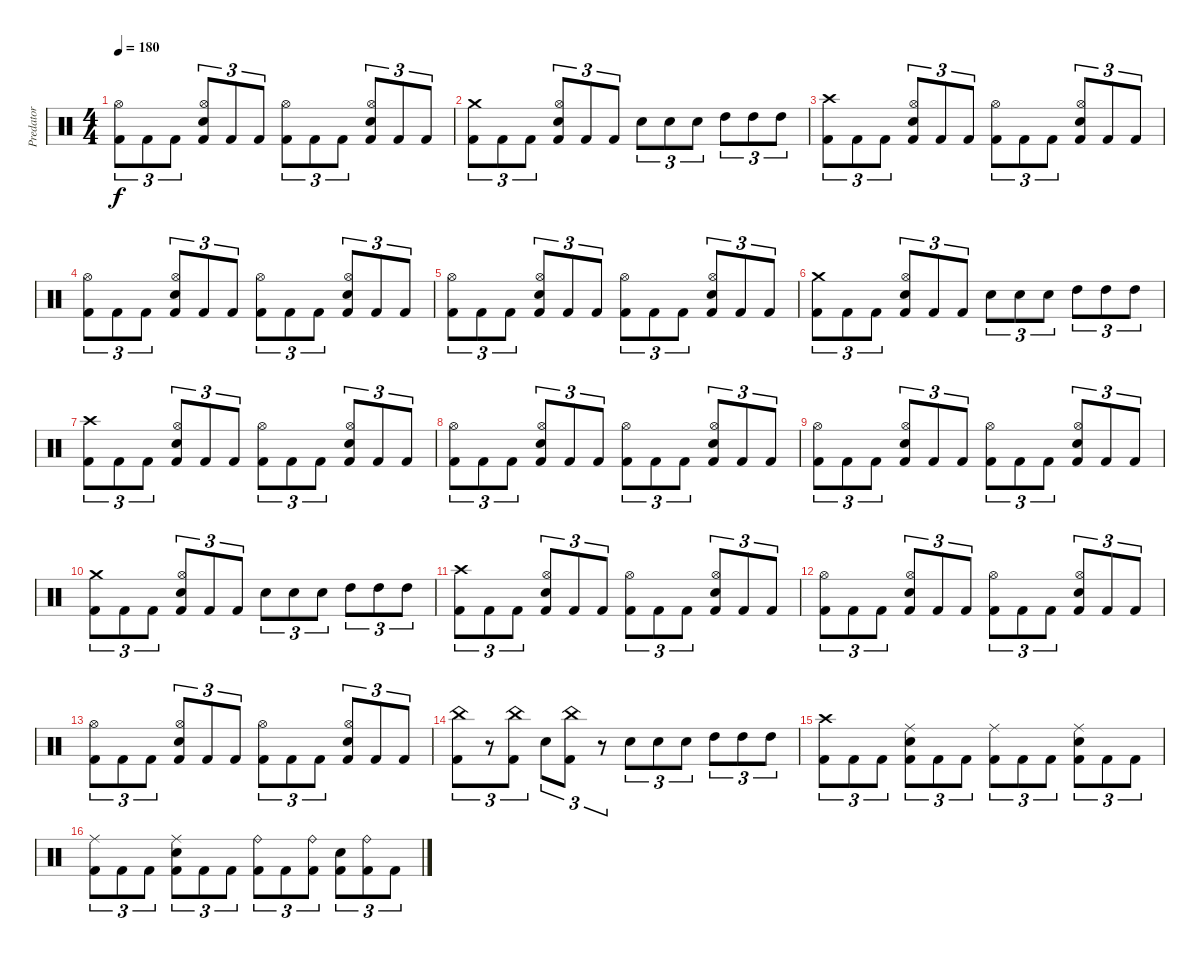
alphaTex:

\track ("Predator" "Predator") {instrument percussion}
\staff {score}
\articulation defaults
\ts (4 4)
\tempo 180
\clef neutral
\ks c
("Kick (hit) 2" "Hi-Hat (open)").8{tu (3 2) dy f} "Kick (hit) 2".8{tu (3 2)} "Kick (hit) 2".8{tu (3 2)} ("Kick (hit) 2" "Electric Snare (hit)" "Hi-Hat (open)").8{tu (3 2)} "Kick (hit) 2".8{tu (3 2)} "Kick (hit) 2".8{tu (3 2)} ("Kick (hit) 2" "Hi-Hat (open)").8{tu (3 2)} "Kick (hit) 2".8{tu (3 2)} "Kick (hit) 2".8{tu (3 2)} ("Kick (hit) 2" "Electric Snare (hit)" "Hi-Hat (open)").8{tu (3 2)} "Kick (hit) 2".8{tu (3 2)} "Kick (hit) 2".8{tu (3 2)} |
("Kick (hit) 2" "Crash medium (hit)").8{tu (3 2)} "Kick (hit) 2".8{tu (3 2)} "Kick (hit) 2".8{tu (3 2)} ("Kick (hit) 2" "Electric Snare (hit)" "Hi-Hat (open)").8{tu (3 2)} "Kick (hit) 2".8{tu (3 2)} "Kick (hit) 2".8{tu (3 2)} "Electric Snare (hit)".8{tu (3 2)} "Electric Snare (hit)".8{tu (3 2)} "Electric Snare (hit)".8{tu (3 2)} "High Tom (hit)".8{tu (3 2)} "High Tom (hit)".8{tu (3 2)} "High Tom (hit)".8{tu (3 2)} |
("Kick (hit) 2" "Crash high (hit)").8{tu (3 2)} "Kick (hit) 2".8{tu (3 2)} "Kick (hit) 2".8{tu (3 2)} ("Kick (hit) 2" "Electric Snare (hit)" "Hi-Hat (open)").8{tu (3 2)} "Kick (hit) 2".8{tu (3 2)} "Kick (hit) 2".8{tu (3 2)} ("Kick (hit) 2" "Hi-Hat (open)").8{tu (3 2)} "Kick (hit) 2".8{tu (3 2)} "Kick (hit) 2".8{tu (3 2)} ("Kick (hit) 2" "Electric Snare (hit)" "Hi-Hat (open)").8{tu (3 2)} "Kick (hit) 2".8{tu (3 2)} "Kick (hit) 2".8{tu (3 2)} |
("Kick (hit) 2" "Hi-Hat (open)").8{tu (3 2)} "Kick (hit) 2".8{tu (3 2)} "Kick (hit) 2".8{tu (3 2)} ("Kick (hit) 2" "Electric Snare (hit)" "Hi-Hat (open)").8{tu (3 2)} "Kick (hit) 2".8{tu (3 2)} "Kick (hit) 2".8{tu (3 2)} ("Kick (hit) 2" "Hi-Hat (open)").8{tu (3 2)} "Kick (hit) 2".8{tu (3 2)} "Kick (hit) 2".8{tu (3 2)} ("Kick (hit) 2" "Electric Snare (hit)" "Hi-Hat (open)").8{tu (3 2)} "Kick (hit) 2".8{tu (3 2)} "Kick (hit) 2".8{tu (3 2)} |
("Kick (hit) 2" "Hi-Hat (open)").8{tu (3 2)} "Kick (hit) 2".8{tu (3 2)} "Kick (hit) 2".8{tu (3 2)} ("Kick (hit) 2" "Electric Snare (hit)" "Hi-Hat (open)").8{tu (3 2)} "Kick (hit) 2".8{tu (3 2)} "Kick (hit) 2".8{tu (3 2)} ("Kick (hit) 2" "Hi-Hat (open)").8{tu (3 2)} "Kick (hit) 2".8{tu (3 2)} "Kick (hit) 2".8{tu (3 2)} ("Kick (hit) 2" "Electric Snare (hit)" "Hi-Hat (open)").8{tu (3 2)} "Kick (hit) 2".8{tu (3 2)} "Kick (hit) 2".8{tu (3 2)} |
("Kick (hit) 2" "Crash medium (hit)").8{tu (3 2)} "Kick (hit) 2".8{tu (3 2)} "Kick (hit) 2".8{tu (3 2)} ("Kick (hit) 2" "Electric Snare (hit)" "Hi-Hat (open)").8{tu (3 2)} "Kick (hit) 2".8{tu (3 2)} "Kick (hit) 2".8{tu (3 2)} "Electric Snare (hit)".8{tu (3 2)} "Electric Snare (hit)".8{tu (3 2)} "Electric Snare (hit)".8{tu (3 2)} "High Tom (hit)".8{tu (3 2)} "High Tom (hit)".8{tu (3 2)} "High Tom (hit)".8{tu (3 2)} |
("Kick (hit) 2" "Crash high (hit)").8{tu (3 2)} "Kick (hit) 2".8{tu (3 2)} "Kick (hit) 2".8{tu (3 2)} ("Kick (hit) 2" "Electric Snare (hit)" "Hi-Hat (open)").8{tu (3 2)} "Kick (hit) 2".8{tu (3 2)} "Kick (hit) 2".8{tu (3 2)} ("Kick (hit) 2" "Hi-Hat (open)").8{tu (3 2)} "Kick (hit) 2".8{tu (3 2)} "Kick (hit) 2".8{tu (3 2)} ("Kick (hit) 2" "Electric Snare (hit)" "Hi-Hat (open)").8{tu (3 2)} "Kick (hit) 2".8{tu (3 2)} "Kick (hit) 2".8{tu (3 2)} |
("Kick (hit) 2" "Hi-Hat (open)").8{tu (3 2)} "Kick (hit) 2".8{tu (3 2)} "Kick (hit) 2".8{tu (3 2)} ("Kick (hit) 2" "Electric Snare (hit)" "Hi-Hat (open)").8{tu (3 2)} "Kick (hit) 2".8{tu (3 2)} "Kick (hit) 2".8{tu (3 2)} ("Kick (hit) 2" "Hi-Hat (open)").8{tu (3 2)} "Kick (hit) 2".8{tu (3 2)} "Kick (hit) 2".8{tu (3 2)} ("Kick (hit) 2" "Electric Snare (hit)" "Hi-Hat (open)").8{tu (3 2)} "Kick (hit) 2".8{tu (3 2)} "Kick (hit) 2".8{tu (3 2)} |
("Kick (hit) 2" "Hi-Hat (open)").8{tu (3 2)} "Kick (hit) 2".8{tu (3 2)} "Kick (hit) 2".8{tu (3 2)} ("Kick (hit) 2" "Electric Snare (hit)" "Hi-Hat (open)").8{tu (3 2)} "Kick (hit) 2".8{tu (3 2)} "Kick (hit) 2".8{tu (3 2)} ("Kick (hit) 2" "Hi-Hat (open)").8{tu (3 2)} "Kick (hit) 2".8{tu (3 2)} "Kick (hit) 2".8{tu (3 2)} ("Kick (hit) 2" "Electric Snare (hit)" "Hi-Hat (open)").8{tu (3 2)} "Kick (hit) 2".8{tu (3 2)} "Kick (hit) 2".8{tu (3 2)} |
("Kick (hit) 2" "Crash medium (hit)").8{tu (3 2)} "Kick (hit) 2".8{tu (3 2)} "Kick (hit) 2".8{tu (3 2)} ("Kick (hit) 2" "Electric Snare (hit)" "Hi-Hat (open)").8{tu (3 2)} "Kick (hit) 2".8{tu (3 2)} "Kick (hit) 2".8{tu (3 2)} "Electric Snare (hit)".8{tu (3 2)} "Electric Snare (hit)".8{tu (3 2)} "Electric Snare (hit)".8{tu (3 2)} "High Tom (hit)".8{tu (3 2)} "High Tom (hit)".8{tu (3 2)} "High Tom (hit)".8{tu (3 2)} |
("Kick (hit) 2" "Crash high (hit)").8{tu (3 2)} "Kick (hit) 2".8{tu (3 2)} "Kick (hit) 2".8{tu (3 2)} ("Kick (hit) 2" "Electric Snare (hit)" "Hi-Hat (open)").8{tu (3 2)} "Kick (hit) 2".8{tu (3 2)} "Kick (hit) 2".8{tu (3 2)} ("Kick (hit) 2" "Hi-Hat (open)").8{tu (3 2)} "Kick (hit) 2".8{tu (3 2)} "Kick (hit) 2".8{tu (3 2)} ("Kick (hit) 2" "Electric Snare (hit)" "Hi-Hat (open)").8{tu (3 2)} "Kick (hit) 2".8{tu (3 2)} "Kick (hit) 2".8{tu (3 2)} |
("Kick (hit) 2" "Hi-Hat (open)").8{tu (3 2)} "Kick (hit) 2".8{tu (3 2)} "Kick (hit) 2".8{tu (3 2)} ("Kick (hit) 2" "Electric Snare (hit)" "Hi-Hat (open)").8{tu (3 2)} "Kick (hit) 2".8{tu (3 2)} "Kick (hit) 2".8{tu (3 2)} ("Kick (hit) 2" "Hi-Hat (open)").8{tu (3 2)} "Kick (hit) 2".8{tu (3 2)} "Kick (hit) 2".8{tu (3 2)} ("Kick (hit) 2" "Electric Snare (hit)" "Hi-Hat (open)").8{tu (3 2)} "Kick (hit) 2".8{tu (3 2)} "Kick (hit) 2".8{tu (3 2)} |
("Kick (hit) 2" "Hi-Hat (open)").8{tu (3 2)} "Kick (hit) 2".8{tu (3 2)} "Kick (hit) 2".8{tu (3 2)} ("Kick (hit) 2" "Electric Snare (hit)" "Hi-Hat (open)").8{tu (3 2)} "Kick (hit) 2".8{tu (3 2)} "Kick (hit) 2".8{tu (3 2)} ("Kick (hit) 2" "Hi-Hat (open)").8{tu (3 2)} "Kick (hit) 2".8{tu (3 2)} "Kick (hit) 2".8{tu (3 2)} ("Kick (hit) 2" "Electric Snare (hit)" "Hi-Hat (open)").8{tu (3 2)} "Kick (hit) 2".8{tu (3 2)} "Kick (hit) 2".8{tu (3 2)} |
("Kick (hit) 2" "China (hit)").8{tu (3 2)} r.8{tu (3 2)} ("Kick (hit) 2" "China (hit)").8{tu (3 2)} "Electric Snare (hit)".8{tu (3 2)} ("Kick (hit) 2" "China (hit)").8{tu (3 2)} r.8{tu (3 2)} "Electric Snare (hit)".8{tu (3 2)} "Electric Snare (hit)".8{tu (3 2)} "Electric Snare (hit)".8{tu (3 2)} "High Tom (hit)".8{tu (3 2)} "High Tom (hit)".8{tu (3 2)} "High Tom (hit)".8{tu (3 2)} |
("Kick (hit) 2" "Crash high (hit)").8{tu (3 2)} "Kick (hit) 2".8{tu (3 2)} "Kick (hit) 2".8{tu (3 2)} ("Kick (hit) 2" "Electric Snare (hit)" "Ride (middle)").8{tu (3 2)} "Kick (hit) 2".8{tu (3 2)} "Kick (hit) 2".8{tu (3 2)} ("Kick (hit) 2" "Ride (middle)").8{tu (3 2)} "Kick (hit) 2".8{tu (3 2)} "Kick (hit) 2".8{tu (3 2)} ("Kick (hit) 2" "Electric Snare (hit)" "Ride (middle)").8{tu (3 2)} "Kick (hit) 2".8{tu (3 2)} "Kick (hit) 2".8{tu (3 2)} |
("Kick (hit) 2" "Ride (middle)").8{tu (3 2)} "Kick (hit) 2".8{tu (3 2)} "Kick (hit) 2".8{tu (3 2)} ("Kick (hit) 2" "Electric Snare (hit)" "Ride (middle)").8{tu (3 2)} "Kick (hit) 2".8{tu (3 2)} "Kick (hit) 2".8{tu (3 2)} ("Kick (hit) 2" "Ride (bell)").8{tu (3 2)} "Kick (hit) 2".8{tu (3 2)} ("Kick (hit) 2" "Ride (bell)").8{tu (3 2)} ("Kick (hit) 2" "Electric Snare (hit)").8{tu (3 2)} ("Kick (hit) 2" "Ride (bell)").8{tu (3 2)} "Kick (hit) 2".8{tu (3 2)}
